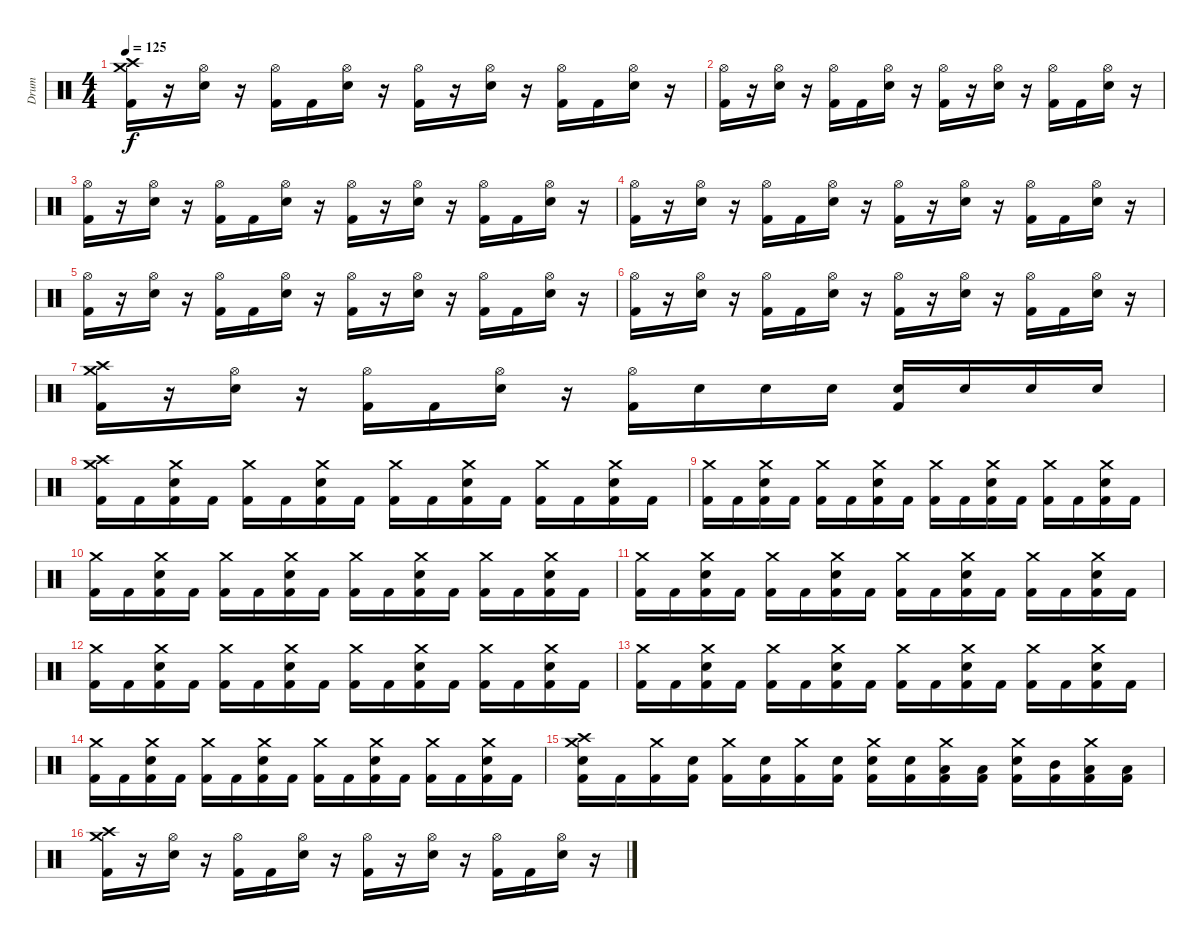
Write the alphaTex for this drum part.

\track ("Drum" "Drum") {instrument percussion}
\staff {score}
\articulation defaults
\ts (4 4)
\tempo 125
\clef neutral
\ks c
("Crash high (hit)" "Crash medium (hit)" "Kick (hit) 2").16{dy f} r.16 ("Hi-Hat (open)" "Electric Snare (hit)").16 r.16 ("Hi-Hat (open)" "Kick (hit) 2").16 "Kick (hit) 2".16 ("Hi-Hat (open)" "Electric Snare (hit)").16 r.16 ("Hi-Hat (open)" "Kick (hit) 2").16 r.16 ("Hi-Hat (open)" "Electric Snare (hit)").16 r.16 ("Hi-Hat (open)" "Kick (hit) 2").16 "Kick (hit) 2".16 ("Hi-Hat (open)" "Electric Snare (hit)").16 r.16 |
("Hi-Hat (open)" "Kick (hit) 2").16 r.16 ("Hi-Hat (open)" "Electric Snare (hit)").16 r.16 ("Hi-Hat (open)" "Kick (hit) 2").16 "Kick (hit) 2".16 ("Hi-Hat (open)" "Electric Snare (hit)").16 r.16 ("Hi-Hat (open)" "Kick (hit) 2").16 r.16 ("Hi-Hat (open)" "Electric Snare (hit)").16 r.16 ("Hi-Hat (open)" "Kick (hit) 2").16 "Kick (hit) 2".16 ("Hi-Hat (open)" "Electric Snare (hit)").16 r.16 |
("Hi-Hat (open)" "Kick (hit) 2").16 r.16 ("Hi-Hat (open)" "Electric Snare (hit)").16 r.16 ("Hi-Hat (open)" "Kick (hit) 2").16 "Kick (hit) 2".16 ("Hi-Hat (open)" "Electric Snare (hit)").16 r.16 ("Hi-Hat (open)" "Kick (hit) 2").16 r.16 ("Hi-Hat (open)" "Electric Snare (hit)").16 r.16 ("Hi-Hat (open)" "Kick (hit) 2").16 "Kick (hit) 2".16 ("Hi-Hat (open)" "Electric Snare (hit)").16 r.16 |
("Hi-Hat (open)" "Kick (hit) 2").16 r.16 ("Hi-Hat (open)" "Electric Snare (hit)").16 r.16 ("Hi-Hat (open)" "Kick (hit) 2").16 "Kick (hit) 2".16 ("Hi-Hat (open)" "Electric Snare (hit)").16 r.16 ("Hi-Hat (open)" "Kick (hit) 2").16 r.16 ("Hi-Hat (open)" "Electric Snare (hit)").16 r.16 ("Hi-Hat (open)" "Kick (hit) 2").16 "Kick (hit) 2".16 ("Hi-Hat (open)" "Electric Snare (hit)").16 r.16 |
("Hi-Hat (open)" "Kick (hit) 2").16 r.16 ("Hi-Hat (open)" "Electric Snare (hit)").16 r.16 ("Hi-Hat (open)" "Kick (hit) 2").16 "Kick (hit) 2".16 ("Hi-Hat (open)" "Electric Snare (hit)").16 r.16 ("Hi-Hat (open)" "Kick (hit) 2").16 r.16 ("Hi-Hat (open)" "Electric Snare (hit)").16 r.16 ("Hi-Hat (open)" "Kick (hit) 2").16 "Kick (hit) 2".16 ("Hi-Hat (open)" "Electric Snare (hit)").16 r.16 |
("Hi-Hat (open)" "Kick (hit) 2").16 r.16 ("Hi-Hat (open)" "Electric Snare (hit)").16 r.16 ("Hi-Hat (open)" "Kick (hit) 2").16 "Kick (hit) 2".16 ("Hi-Hat (open)" "Electric Snare (hit)").16 r.16 ("Hi-Hat (open)" "Kick (hit) 2").16 r.16 ("Hi-Hat (open)" "Electric Snare (hit)").16 r.16 ("Hi-Hat (open)" "Kick (hit) 2").16 "Kick (hit) 2".16 ("Hi-Hat (open)" "Electric Snare (hit)").16 r.16 |
("Crash high (hit)" "Crash medium (hit)" "Kick (hit) 2").16 r.16 ("Hi-Hat (open)" "Electric Snare (hit)").16 r.16 ("Hi-Hat (open)" "Kick (hit) 2").16 "Kick (hit) 2".16 ("Hi-Hat (open)" "Electric Snare (hit)").16 r.16 ("Hi-Hat (open)" "Kick (hit) 2").16 "Electric Snare (hit)".16 "Electric Snare (hit)".16 "Electric Snare (hit)".16 ("Kick (hit) 2" "Electric Snare (hit)").16 "Electric Snare (hit)".16 "Electric Snare (hit)".16 "Electric Snare (hit)".16 |
("Crash high (hit)" "Crash medium (hit)" "Kick (hit) 2").16 "Kick (hit) 2".16 ("Crash medium (hit)" "Kick (hit) 2" "Electric Snare (hit)").16 "Kick (hit) 2".16 ("Crash medium (hit)" "Kick (hit) 2").16 "Kick (hit) 2".16 ("Crash medium (hit)" "Kick (hit) 2" "Electric Snare (hit)").16 "Kick (hit) 2".16 ("Crash medium (hit)" "Kick (hit) 2").16 "Kick (hit) 2".16 ("Crash medium (hit)" "Kick (hit) 2" "Electric Snare (hit)").16 "Kick (hit) 2".16 ("Crash medium (hit)" "Kick (hit) 2").16 "Kick (hit) 2".16 ("Crash medium (hit)" "Kick (hit) 2" "Electric Snare (hit)").16 "Kick (hit) 2".16 |
("Crash medium (hit)" "Kick (hit) 2").16 "Kick (hit) 2".16 ("Crash medium (hit)" "Kick (hit) 2" "Electric Snare (hit)").16 "Kick (hit) 2".16 ("Crash medium (hit)" "Kick (hit) 2").16 "Kick (hit) 2".16 ("Crash medium (hit)" "Kick (hit) 2" "Electric Snare (hit)").16 "Kick (hit) 2".16 ("Crash medium (hit)" "Kick (hit) 2").16 "Kick (hit) 2".16 ("Crash medium (hit)" "Kick (hit) 2" "Electric Snare (hit)").16 "Kick (hit) 2".16 ("Crash medium (hit)" "Kick (hit) 2").16 "Kick (hit) 2".16 ("Crash medium (hit)" "Kick (hit) 2" "Electric Snare (hit)").16 "Kick (hit) 2".16 |
("Crash medium (hit)" "Kick (hit) 2").16 "Kick (hit) 2".16 ("Crash medium (hit)" "Kick (hit) 2" "Electric Snare (hit)").16 "Kick (hit) 2".16 ("Crash medium (hit)" "Kick (hit) 2").16 "Kick (hit) 2".16 ("Crash medium (hit)" "Kick (hit) 2" "Electric Snare (hit)").16 "Kick (hit) 2".16 ("Crash medium (hit)" "Kick (hit) 2").16 "Kick (hit) 2".16 ("Crash medium (hit)" "Kick (hit) 2" "Electric Snare (hit)").16 "Kick (hit) 2".16 ("Crash medium (hit)" "Kick (hit) 2").16 "Kick (hit) 2".16 ("Crash medium (hit)" "Kick (hit) 2" "Electric Snare (hit)").16 "Kick (hit) 2".16 |
("Crash medium (hit)" "Kick (hit) 2").16 "Kick (hit) 2".16 ("Crash medium (hit)" "Kick (hit) 2" "Electric Snare (hit)").16 "Kick (hit) 2".16 ("Crash medium (hit)" "Kick (hit) 2").16 "Kick (hit) 2".16 ("Crash medium (hit)" "Kick (hit) 2" "Electric Snare (hit)").16 "Kick (hit) 2".16 ("Crash medium (hit)" "Kick (hit) 2").16 "Kick (hit) 2".16 ("Crash medium (hit)" "Kick (hit) 2" "Electric Snare (hit)").16 "Kick (hit) 2".16 ("Crash medium (hit)" "Kick (hit) 2").16 "Kick (hit) 2".16 ("Crash medium (hit)" "Kick (hit) 2" "Electric Snare (hit)").16 "Kick (hit) 2".16 |
("Crash medium (hit)" "Kick (hit) 2").16 "Kick (hit) 2".16 ("Crash medium (hit)" "Kick (hit) 2" "Electric Snare (hit)").16 "Kick (hit) 2".16 ("Crash medium (hit)" "Kick (hit) 2").16 "Kick (hit) 2".16 ("Crash medium (hit)" "Kick (hit) 2" "Electric Snare (hit)").16 "Kick (hit) 2".16 ("Crash medium (hit)" "Kick (hit) 2").16 "Kick (hit) 2".16 ("Crash medium (hit)" "Kick (hit) 2" "Electric Snare (hit)").16 "Kick (hit) 2".16 ("Crash medium (hit)" "Kick (hit) 2").16 "Kick (hit) 2".16 ("Crash medium (hit)" "Kick (hit) 2" "Electric Snare (hit)").16 "Kick (hit) 2".16 |
("Crash medium (hit)" "Kick (hit) 2").16 "Kick (hit) 2".16 ("Crash medium (hit)" "Kick (hit) 2" "Electric Snare (hit)").16 "Kick (hit) 2".16 ("Crash medium (hit)" "Kick (hit) 2").16 "Kick (hit) 2".16 ("Crash medium (hit)" "Kick (hit) 2" "Electric Snare (hit)").16 "Kick (hit) 2".16 ("Crash medium (hit)" "Kick (hit) 2").16 "Kick (hit) 2".16 ("Crash medium (hit)" "Kick (hit) 2" "Electric Snare (hit)").16 "Kick (hit) 2".16 ("Crash medium (hit)" "Kick (hit) 2").16 "Kick (hit) 2".16 ("Crash medium (hit)" "Kick (hit) 2" "Electric Snare (hit)").16 "Kick (hit) 2".16 |
("Crash medium (hit)" "Kick (hit) 2").16 "Kick (hit) 2".16 ("Crash medium (hit)" "Kick (hit) 2" "Electric Snare (hit)").16 "Kick (hit) 2".16 ("Crash medium (hit)" "Kick (hit) 2").16 "Kick (hit) 2".16 ("Crash medium (hit)" "Kick (hit) 2" "Electric Snare (hit)").16 "Kick (hit) 2".16 ("Crash medium (hit)" "Kick (hit) 2").16 "Kick (hit) 2".16 ("Crash medium (hit)" "Kick (hit) 2" "Electric Snare (hit)").16 "Kick (hit) 2".16 ("Crash medium (hit)" "Kick (hit) 2").16 "Kick (hit) 2".16 ("Crash medium (hit)" "Kick (hit) 2" "Electric Snare (hit)").16 "Kick (hit) 2".16 |
("Crash high (hit)" "Crash medium (hit)" "Kick (hit) 2" "Electric Snare (hit)").16 "Kick (hit) 2".16 ("Crash medium (hit)" "Kick (hit) 2").16 ("Kick (hit) 2" "Electric Snare (hit)").16 ("Crash medium (hit)" "Kick (hit) 2").16 ("Kick (hit) 2" "Electric Snare (hit)").16 ("Crash medium (hit)" "Kick (hit) 2").16 ("Kick (hit) 2" "Electric Snare (hit)").16 ("Crash medium (hit)" "Kick (hit) 2" "Electric Snare (hit)").16 ("Kick (hit) 2" "Electric Snare (hit)").16 ("Crash medium (hit)" "Kick (hit) 2" "Low Tom (hit)").16 ("Kick (hit) 2" "Low Tom (hit)").16 ("Crash medium (hit)" "Kick (hit) 2" "Electric Snare (hit)").16 ("Kick (hit) 2" "Mid Tom (hit)").16 ("Crash medium (hit)" "Kick (hit) 2" "Low Floor Tom (hit)").16 ("Kick (hit) 2" "Low Floor Tom (hit)").16 |
("Crash high (hit)" "Crash medium (hit)" "Kick (hit) 2").16 r.16 ("Hi-Hat (open)" "Electric Snare (hit)").16 r.16 ("Hi-Hat (open)" "Kick (hit) 2").16 "Kick (hit) 2".16 ("Hi-Hat (open)" "Electric Snare (hit)").16 r.16 ("Hi-Hat (open)" "Kick (hit) 2").16 r.16 ("Hi-Hat (open)" "Electric Snare (hit)").16 r.16 ("Hi-Hat (open)" "Kick (hit) 2").16 "Kick (hit) 2".16 ("Hi-Hat (open)" "Electric Snare (hit)").16 r.16
